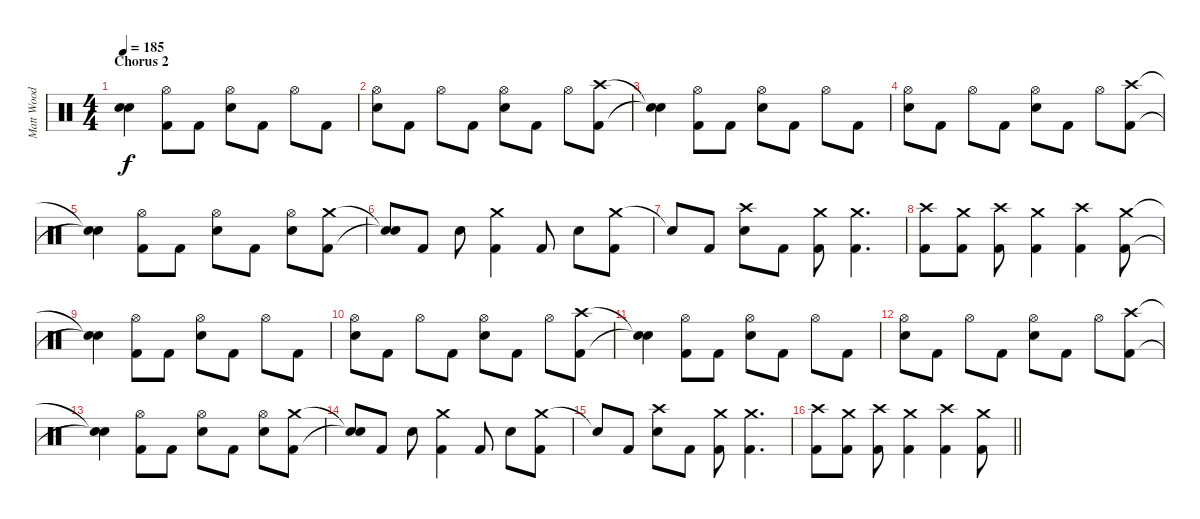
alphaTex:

\track ("Matt Wood" "Matt Wood") {instrument percussion}
\staff {score}
\articulation defaults
\ts (4 4)
\section ("" "Chorus 2")
\tempo 185
\clef neutral
\ks c
("Snare (hit)"{t} "Snare (hit)"{t}).4{dy f} ("Hi-Hat (open)" "Kick (hit) 2").8 "Kick (hit) 2".8 ("Hi-Hat (open)" "Snare (hit) 2").8 "Kick (hit) 2".8 "Hi-Hat (open)".8 "Kick (hit) 2".8 |
("Hi-Hat (open)" "Snare (hit) 2").8 "Kick (hit) 2".8 "Hi-Hat (open)".8 "Kick (hit) 2".8 ("Hi-Hat (open)" "Snare (hit) 2").8 "Kick (hit) 2".8 "Hi-Hat (open)".8 ("Crash high (hit)" "Kick (hit) 2").8 |
("Snare (hit)"{t} "Snare (hit)"{t}).4 ("Hi-Hat (open)" "Kick (hit) 2").8 "Kick (hit) 2".8 ("Hi-Hat (open)" "Snare (hit) 2").8 "Kick (hit) 2".8 "Hi-Hat (open)".8 "Kick (hit) 2".8 |
("Hi-Hat (open)" "Snare (hit) 2").8 "Kick (hit) 2".8 "Hi-Hat (open)".8 "Kick (hit) 2".8 ("Hi-Hat (open)" "Snare (hit) 2").8 "Kick (hit) 2".8 "Hi-Hat (open)".8 ("Crash high (hit)" "Kick (hit) 2").8 |
("Snare (hit)"{t} "Snare (hit)"{t}).4 ("Hi-Hat (open)" "Kick (hit) 2").8 "Kick (hit) 2".8 ("Hi-Hat (open)" "Snare (hit) 2").8 "Kick (hit) 2".8 ("Hi-Hat (open)" "Snare (hit) 2").8 ("Crash medium (hit)" "Kick (hit) 2").8 |
("Snare (hit)"{t} "Snare (hit)"{t}).8 "Kick (hit) 2".8 "Snare (hit) 2".8 ("Crash medium (hit)" "Kick (hit) 2").4 "Kick (hit) 2".8 "Snare (hit) 2".8 ("Crash medium (hit)" "Kick (hit) 2").8 |
"Snare (hit)"{t}.8 "Kick (hit) 2".8 ("Crash high (hit)" "Snare (hit) 2").8 "Kick (hit) 2".8 ("Crash medium (hit)" "Kick (hit) 2").8 ("Crash medium (hit)" "Kick (hit) 2").4{d} |
("Crash high (hit)" "Kick (hit) 2").8 ("Crash medium (hit)" "Kick (hit) 2").8 ("Crash high (hit)" "Kick (hit) 2").8 ("Crash medium (hit)" "Kick (hit) 2").4 ("Crash high (hit)" "Kick (hit) 2").4 ("Crash medium (hit)" "Kick (hit) 2").8 |
("Snare (hit)"{t} "Snare (hit)"{t}).4 ("Hi-Hat (open)" "Kick (hit) 2").8 "Kick (hit) 2".8 ("Hi-Hat (open)" "Snare (hit) 2").8 "Kick (hit) 2".8 "Hi-Hat (open)".8 "Kick (hit) 2".8 |
("Hi-Hat (open)" "Snare (hit) 2").8 "Kick (hit) 2".8 "Hi-Hat (open)".8 "Kick (hit) 2".8 ("Hi-Hat (open)" "Snare (hit) 2").8 "Kick (hit) 2".8 "Hi-Hat (open)".8 ("Crash high (hit)" "Kick (hit) 2").8 |
("Snare (hit)"{t} "Snare (hit)"{t}).4 ("Hi-Hat (open)" "Kick (hit) 2").8 "Kick (hit) 2".8 ("Hi-Hat (open)" "Snare (hit) 2").8 "Kick (hit) 2".8 "Hi-Hat (open)".8 "Kick (hit) 2".8 |
("Hi-Hat (open)" "Snare (hit) 2").8 "Kick (hit) 2".8 "Hi-Hat (open)".8 "Kick (hit) 2".8 ("Hi-Hat (open)" "Snare (hit) 2").8 "Kick (hit) 2".8 "Hi-Hat (open)".8 ("Crash high (hit)" "Kick (hit) 2").8 |
("Snare (hit)"{t} "Snare (hit)"{t}).4 ("Hi-Hat (open)" "Kick (hit) 2").8 "Kick (hit) 2".8 ("Hi-Hat (open)" "Snare (hit) 2").8 "Kick (hit) 2".8 ("Hi-Hat (open)" "Snare (hit) 2").8 ("Crash medium (hit)" "Kick (hit) 2").8 |
("Snare (hit)"{t} "Snare (hit)"{t}).8 "Kick (hit) 2".8 "Snare (hit) 2".8 ("Crash medium (hit)" "Kick (hit) 2").4 "Kick (hit) 2".8 "Snare (hit) 2".8 ("Crash medium (hit)" "Kick (hit) 2").8 |
"Snare (hit)"{t}.8 "Kick (hit) 2".8 ("Crash high (hit)" "Snare (hit) 2").8 "Kick (hit) 2".8 ("Crash medium (hit)" "Kick (hit) 2").8 ("Crash medium (hit)" "Kick (hit) 2").4{d} |
\barLineRight lightlight
("Crash high (hit)" "Kick (hit) 2").8 ("Crash medium (hit)" "Kick (hit) 2").8 ("Crash high (hit)" "Kick (hit) 2").8 ("Crash medium (hit)" "Kick (hit) 2").4 ("Crash high (hit)" "Kick (hit) 2").4 ("Crash medium (hit)" "Kick (hit) 2").8
